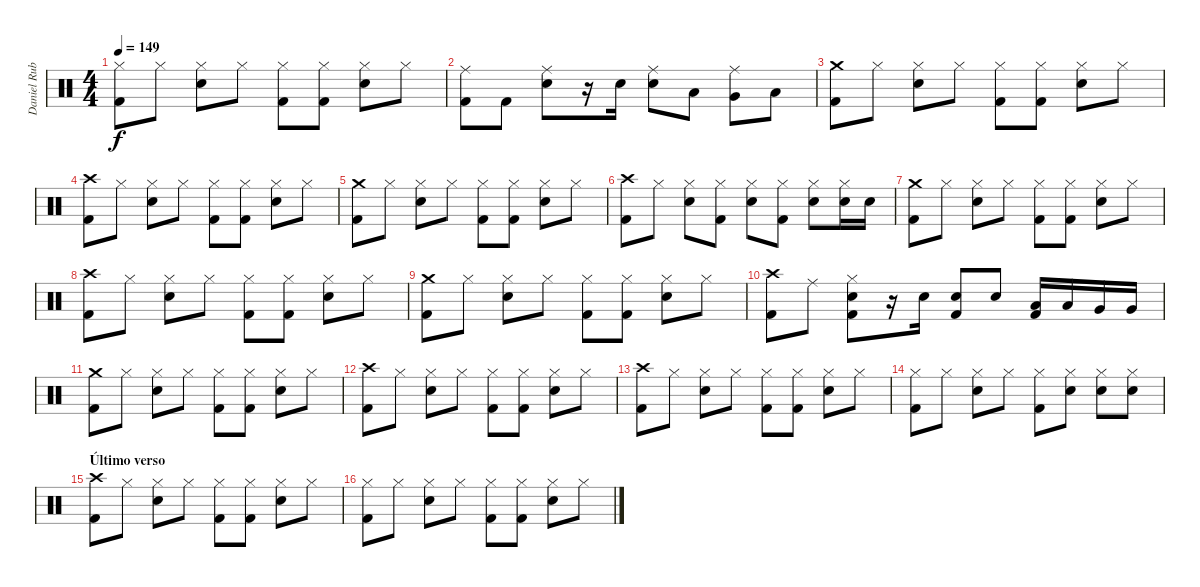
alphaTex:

\track ("Daniel Rubiano" "Daniel Rub") {instrument percussion}
\staff {score}
\articulation defaults
\ts (4 4)
\tempo 149
\clef neutral
\ks c
("Hi-Hat (closed)" "Kick (hit) 2").8{dy f} "Hi-Hat (closed)".8 ("Hi-Hat (closed)" "Snare (hit) 2").8 "Hi-Hat (closed)".8 ("Hi-Hat (closed)" "Kick (hit) 2").8 ("Hi-Hat (closed)" "Kick (hit) 2").8 ("Hi-Hat (closed)" "Snare (hit) 2").8 "Hi-Hat (closed)".8 |
("Ride (middle)" "Kick (hit) 2").8 "Kick (hit) 2".8 ("Ride (middle)" "Snare (hit) 2").8 r.16 "Snare (hit) 2".16 ("Ride (middle)" "Snare (hit) 2").8 "Low Tom (hit)".8 ("Ride (middle)" "Very Low Tom (hit)").8 "Low Floor Tom (hit)".8 |
("Crash medium (hit)" "Kick (hit) 2").8 "Hi-Hat (closed)".8 ("Hi-Hat (closed)" "Snare (hit) 2").8 "Hi-Hat (closed)".8 ("Hi-Hat (closed)" "Kick (hit) 2").8 ("Hi-Hat (closed)" "Kick (hit) 2").8 ("Hi-Hat (closed)" "Snare (hit) 2").8 "Hi-Hat (closed)".8 |
("Crash high (hit)" "Kick (hit) 2").8 "Hi-Hat (closed)".8 ("Hi-Hat (closed)" "Snare (hit) 2").8 "Hi-Hat (closed)".8 ("Hi-Hat (closed)" "Kick (hit) 2").8 ("Hi-Hat (closed)" "Kick (hit) 2").8 ("Hi-Hat (closed)" "Snare (hit) 2").8 "Hi-Hat (closed)".8 |
("Crash medium (hit)" "Kick (hit) 2").8 "Hi-Hat (closed)".8 ("Hi-Hat (closed)" "Snare (hit) 2").8 "Hi-Hat (closed)".8 ("Hi-Hat (closed)" "Kick (hit) 2").8 ("Hi-Hat (closed)" "Kick (hit) 2").8 ("Hi-Hat (closed)" "Snare (hit) 2").8 "Hi-Hat (closed)".8 |
("Crash high (hit)" "Kick (hit) 2").8 "Hi-Hat (closed)".8 ("Hi-Hat (closed)" "Snare (hit) 2").8 ("Hi-Hat (closed)" "Kick (hit) 2").8 ("Hi-Hat (closed)" "Snare (hit) 2").8 ("Hi-Hat (closed)" "Kick (hit) 2").8 ("Hi-Hat (closed)" "Snare (hit) 2").8 ("Hi-Hat (closed)" "Snare (hit) 2").16 "Snare (hit) 2".16 |
("Crash medium (hit)" "Kick (hit) 2").8 "Hi-Hat (closed)".8 ("Hi-Hat (closed)" "Snare (hit) 2").8 "Hi-Hat (closed)".8 ("Hi-Hat (closed)" "Kick (hit) 2").8 ("Hi-Hat (closed)" "Kick (hit) 2").8 ("Hi-Hat (closed)" "Snare (hit) 2").8 "Hi-Hat (closed)".8 |
("Crash high (hit)" "Kick (hit) 2").8 "Hi-Hat (closed)".8 ("Hi-Hat (closed)" "Snare (hit) 2").8 "Hi-Hat (closed)".8 ("Hi-Hat (closed)" "Kick (hit) 2").8 ("Hi-Hat (closed)" "Kick (hit) 2").8 ("Hi-Hat (closed)" "Snare (hit) 2").8 "Hi-Hat (closed)".8 |
("Crash medium (hit)" "Kick (hit) 2").8 "Hi-Hat (closed)".8 ("Hi-Hat (closed)" "Snare (hit) 2").8 "Hi-Hat (closed)".8 ("Hi-Hat (closed)" "Kick (hit) 2").8 ("Hi-Hat (closed)" "Kick (hit) 2").8 ("Hi-Hat (closed)" "Snare (hit) 2").8 "Hi-Hat (closed)".8 |
("Crash high (hit)" "Kick (hit) 2").8 "Ride (middle)".8 ("Hi-Hat (closed)" "Snare (hit) 2" "Kick (hit) 2").8 r.16 "Snare (hit) 2".16 ("Snare (hit) 2" "Kick (hit) 2").8 "Snare (hit) 2".8 ("Low Tom (hit)" "Kick (hit) 2").16 "Low Tom (hit)".16 "Very Low Tom (hit)".16 "Very Low Tom (hit)".16 |
("Crash medium (hit)" "Kick (hit) 2").8 "Hi-Hat (closed)".8 ("Hi-Hat (closed)" "Snare (hit) 2").8 "Hi-Hat (closed)".8 ("Hi-Hat (closed)" "Kick (hit) 2").8 ("Hi-Hat (closed)" "Kick (hit) 2").8 ("Hi-Hat (closed)" "Snare (hit) 2").8 "Hi-Hat (closed)".8 |
("Crash high (hit)" "Kick (hit) 2").8 "Hi-Hat (closed)".8 ("Hi-Hat (closed)" "Snare (hit) 2").8 "Hi-Hat (closed)".8 ("Hi-Hat (closed)" "Kick (hit) 2").8 ("Hi-Hat (closed)" "Kick (hit) 2").8 ("Hi-Hat (closed)" "Snare (hit) 2").8 "Hi-Hat (closed)".8 |
("Crash high (hit)" "Kick (hit) 2").8 "Hi-Hat (closed)".8 ("Hi-Hat (closed)" "Snare (hit) 2").8 "Hi-Hat (closed)".8 ("Hi-Hat (closed)" "Kick (hit) 2").8 ("Hi-Hat (closed)" "Kick (hit) 2").8 ("Hi-Hat (closed)" "Snare (hit) 2").8 "Hi-Hat (closed)".8 |
("Hi-Hat (closed)" "Kick (hit) 2").8 "Hi-Hat (closed)".8 ("Hi-Hat (closed)" "Snare (hit) 2").8 "Hi-Hat (closed)".8 ("Hi-Hat (closed)" "Kick (hit) 2").8 ("Hi-Hat (closed)" "Snare (hit) 2").8 ("Hi-Hat (closed)" "Snare (hit) 2").8 ("Hi-Hat (closed)" "Snare (hit) 2").8 |
\section ("" "Último verso")
("Crash high (hit)" "Kick (hit) 2").8 "Hi-Hat (closed)".8 ("Hi-Hat (closed)" "Snare (hit) 2").8 "Hi-Hat (closed)".8 ("Hi-Hat (closed)" "Kick (hit) 2").8 ("Hi-Hat (closed)" "Kick (hit) 2").8 ("Hi-Hat (closed)" "Snare (hit) 2").8 "Hi-Hat (closed)".8 |
("Hi-Hat (closed)" "Kick (hit) 2").8 "Hi-Hat (closed)".8 ("Hi-Hat (closed)" "Snare (hit) 2").8 "Hi-Hat (closed)".8 ("Hi-Hat (closed)" "Kick (hit) 2").8 ("Hi-Hat (closed)" "Kick (hit) 2").8 ("Hi-Hat (closed)" "Snare (hit) 2").8 "Hi-Hat (closed)".8
